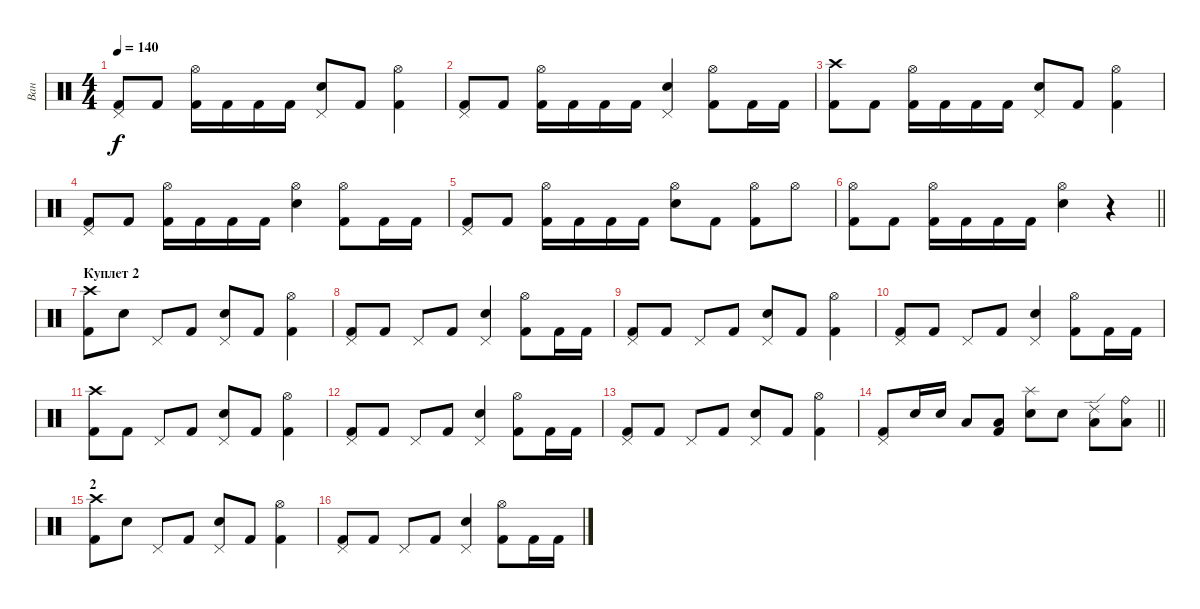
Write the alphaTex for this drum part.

\track ("Ван" "Ван") {instrument percussion}
\staff {score}
\articulation defaults
\ts (4 4)
\tempo 140
\clef neutral
\ks c
("Pedal Hi-Hat (hit)" "Kick (hit) 2").8{dy f} "Kick (hit) 2".8 ("Hi-Hat (open)" "Kick (hit) 2").16 "Kick (hit) 2".16 "Kick (hit) 2".16 "Kick (hit) 2".16 ("Pedal Hi-Hat (hit)" "Snare (hit) 2").8 "Kick (hit) 2".8 ("Hi-Hat (open)" "Kick (hit) 2").4 |
("Pedal Hi-Hat (hit)" "Kick (hit) 2").8 "Kick (hit) 2".8 ("Hi-Hat (open)" "Kick (hit) 2").16 "Kick (hit) 2".16 "Kick (hit) 2".16 "Kick (hit) 2".16 ("Pedal Hi-Hat (hit)" "Snare (hit) 2").4 ("Hi-Hat (open)" "Kick (hit) 2").8 "Kick (hit) 2".16 "Kick (hit) 2".16 |
("Crash high (hit)" "Kick (hit) 2").8 "Kick (hit) 2".8 ("Hi-Hat (open)" "Kick (hit) 2").16 "Kick (hit) 2".16 "Kick (hit) 2".16 "Kick (hit) 2".16 ("Pedal Hi-Hat (hit)" "Snare (hit) 2").8 "Kick (hit) 2".8 ("Hi-Hat (open)" "Kick (hit) 2").4 |
("Pedal Hi-Hat (hit)" "Kick (hit) 2").8 "Kick (hit) 2".8 ("Hi-Hat (open)" "Kick (hit) 2").16 "Kick (hit) 2".16 "Kick (hit) 2".16 "Kick (hit) 2".16 ("Hi-Hat (open)" "Snare (hit) 2").4 ("Hi-Hat (open)" "Kick (hit) 2").8 "Kick (hit) 2".16 "Kick (hit) 2".16 |
("Pedal Hi-Hat (hit)" "Kick (hit) 2").8 "Kick (hit) 2".8 ("Hi-Hat (open)" "Kick (hit) 2").16 "Kick (hit) 2".16 "Kick (hit) 2".16 "Kick (hit) 2".16 ("Hi-Hat (open)" "Snare (hit) 2").8 "Kick (hit) 2".8 ("Hi-Hat (open)" "Kick (hit) 2").8 "Hi-Hat (open)".8 |
\barLineRight lightlight
("Hi-Hat (open)" "Kick (hit) 2").8 "Kick (hit) 2".8 ("Hi-Hat (open)" "Kick (hit) 2").16 "Kick (hit) 2".16 "Kick (hit) 2".16 "Kick (hit) 2".16 ("Hi-Hat (open)" "Snare (hit) 2").4 r.4 |
\section ("" "Куплет 2")
("Crash high (hit)" "Kick (hit) 2").8 "Snare (hit) 2".8 "Pedal Hi-Hat (hit)".8 "Kick (hit) 2".8 ("Pedal Hi-Hat (hit)" "Snare (hit) 2").8 "Kick (hit) 2".8 ("Hi-Hat (open)" "Kick (hit) 2").4 |
("Pedal Hi-Hat (hit)" "Kick (hit) 2").8 "Kick (hit) 2".8 "Pedal Hi-Hat (hit)".8 "Kick (hit) 2".8 ("Pedal Hi-Hat (hit)" "Snare (hit) 2").4 ("Hi-Hat (open)" "Kick (hit) 2").8 "Kick (hit) 2".16 "Kick (hit) 2".16 |
("Pedal Hi-Hat (hit)" "Kick (hit) 2").8 "Kick (hit) 2".8 "Pedal Hi-Hat (hit)".8 "Kick (hit) 2".8 ("Pedal Hi-Hat (hit)" "Snare (hit) 2").8 "Kick (hit) 2".8 ("Hi-Hat (open)" "Kick (hit) 2").4 |
("Pedal Hi-Hat (hit)" "Kick (hit) 2").8 "Kick (hit) 2".8 "Pedal Hi-Hat (hit)".8 "Kick (hit) 2".8 ("Pedal Hi-Hat (hit)" "Snare (hit) 2").4 ("Hi-Hat (open)" "Kick (hit) 2").8 "Kick (hit) 2".16 "Kick (hit) 2".16 |
("Crash high (hit)" "Kick (hit) 2").8 "Kick (hit) 2".8 "Pedal Hi-Hat (hit)".8 "Kick (hit) 2".8 ("Pedal Hi-Hat (hit)" "Snare (hit) 2").8 "Kick (hit) 2".8 ("Hi-Hat (open)" "Kick (hit) 2").4 |
("Pedal Hi-Hat (hit)" "Kick (hit) 2").8 "Kick (hit) 2".8 "Pedal Hi-Hat (hit)".8 "Kick (hit) 2".8 ("Pedal Hi-Hat (hit)" "Snare (hit) 2").4 ("Hi-Hat (open)" "Kick (hit) 2").8 "Kick (hit) 2".16 "Kick (hit) 2".16 |
("Pedal Hi-Hat (hit)" "Kick (hit) 2").8 "Kick (hit) 2".8 "Pedal Hi-Hat (hit)".8 "Kick (hit) 2".8 ("Pedal Hi-Hat (hit)" "Snare (hit) 2").8 "Kick (hit) 2".8 ("Hi-Hat (open)" "Kick (hit) 2").4 |
\barLineRight lightlight
("Pedal Hi-Hat (hit)" "Kick (hit) 2").8 "Snare (hit) 2".16 "Snare (hit) 2".16 "Low Floor Tom (hit)".8 ("Low Floor Tom (hit)" "Kick (hit) 2").8 ("Splash (hit)" "Snare (hit) 2").8 "Snare (hit) 2".8 ("Ride (edge) 2" "Low Floor Tom (hit)").8 ("Ride (bell)" "Low Tom (hit)").8 |
\section ("" "2")
("Crash high (hit)" "Kick (hit) 2").8 "Snare (hit) 2".8 "Pedal Hi-Hat (hit)".8 "Kick (hit) 2".8 ("Pedal Hi-Hat (hit)" "Snare (hit) 2").8 "Kick (hit) 2".8 ("Hi-Hat (open)" "Kick (hit) 2").4 |
("Pedal Hi-Hat (hit)" "Kick (hit) 2").8 "Kick (hit) 2".8 "Pedal Hi-Hat (hit)".8 "Kick (hit) 2".8 ("Pedal Hi-Hat (hit)" "Snare (hit) 2").4 ("Hi-Hat (open)" "Kick (hit) 2").8 "Kick (hit) 2".16 "Kick (hit) 2".16
